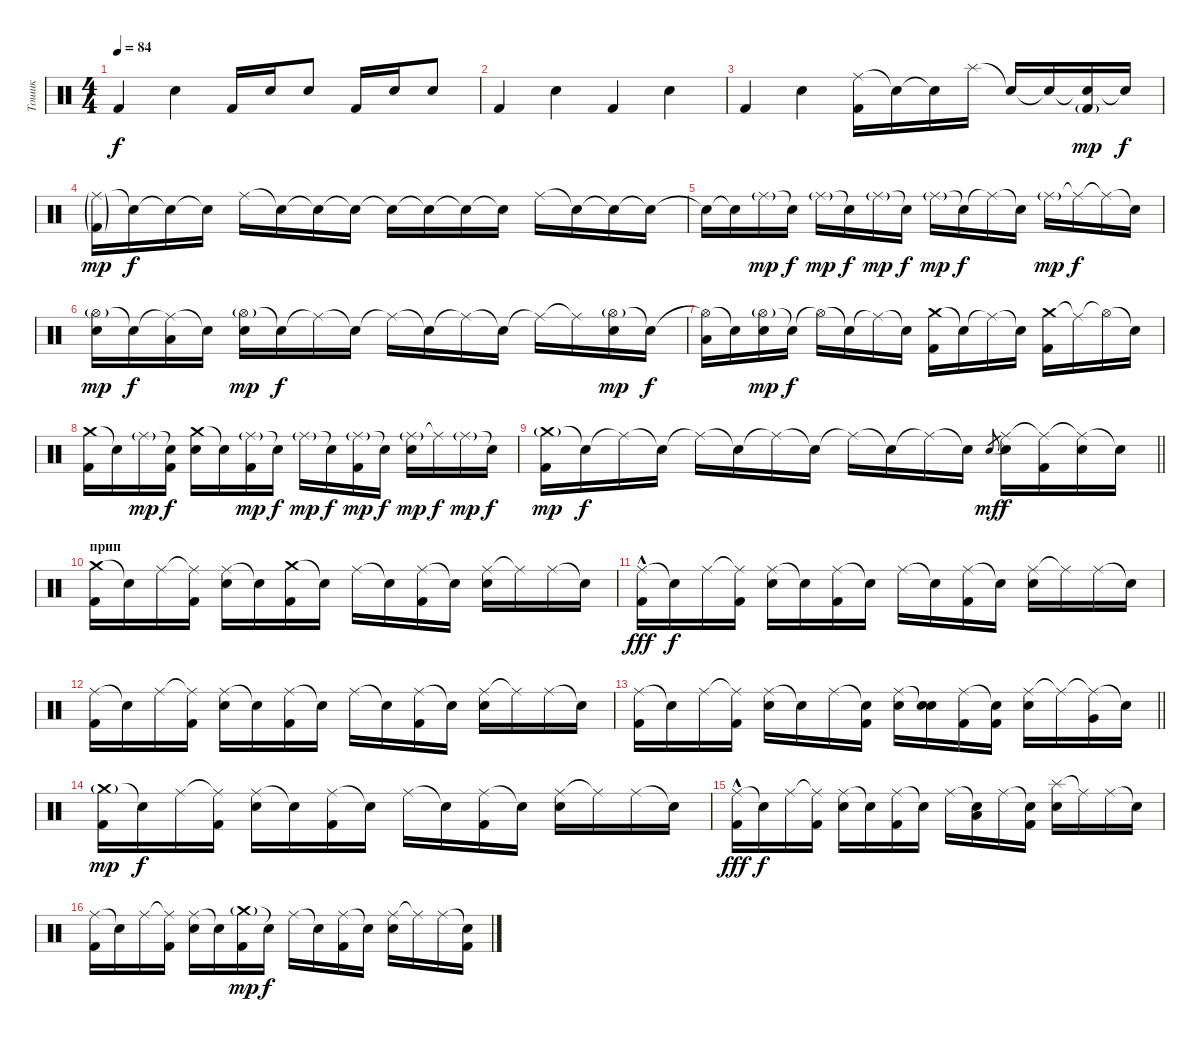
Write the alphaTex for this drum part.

\track ("Тошик" "Тошик") {instrument percussion}
\staff {score}
\articulation defaults
\ts (4 4)
\tempo 84
\clef neutral
\ks c "Kick (hit) 2".4{dy f} "Snare (hit) 2".4 "Kick (hit) 2".16 "Snare (hit) 2".16 "Snare (hit) 2".8 "Kick (hit) 2".16 "Snare (hit) 2".16 "Snare (hit) 2".8
|
"Kick (hit) 2".4 "Snare (hit) 2".4 "Kick (hit) 2".4 "Snare (hit) 2".4 |
"Kick (hit) 2".4 "Snare (hit) 2".4 ("Ride (middle)" "Kick (hit) 2").16 "Snare (hit)"{t}.16 "Snare (hit)"{t}.16 "Splash (hit)".16 "Snare (hit)"{t}.16 "Snare (hit)"{t}.16 ("Snare (hit)"{t} "Kick (hit) 2"{g}).16{dy mp} "Snare (hit)"{t}.16{dy f} |
("Ride (middle)"{g} "Kick (hit) 2"{g}).16{dy mp} "Snare (hit)"{t}.16{dy f} "Snare (hit)"{t}.16 "Snare (hit)"{t}.16 "Ride (middle)".16 "Snare (hit)"{t}.16 "Snare (hit)"{t}.16 "Snare (hit)"{t}.16 "Snare (hit)"{t}.16 "Snare (hit)"{t}.16 "Snare (hit)"{t}.16 "Snare (hit)"{t}.16 "Ride (middle)".16 "Snare (hit)"{t}.16 "Snare (hit)"{t}.16 "Snare (hit)"{t}.16 |
"Snare (hit)"{t}.16 "Snare (hit)"{t}.16 "Ride (middle)"{g}.16{dy mp} "Snare (hit)"{t}.16{dy f} "Ride (middle)"{g}.16{dy mp} "Snare (hit)"{t}.16{dy f} "Ride (middle)"{g}.16{dy mp} "Snare (hit)"{t}.16{dy f} "Ride (middle)"{g}.16{dy mp} "Snare (hit)"{t}.16{dy f} "Ride (middle)"{t}.16 "Snare (hit)"{t}.16 "Ride (middle)"{g}.16{dy mp} "Ride (middle)"{t}.16{dy f} "Ride (middle)"{t}.16 "Snare (hit)"{t}.16 |
("Hi-Hat (open)"{g} "Snare (hit) 2").16{dy mp} "Snare (hit)"{t}.16{dy f} ("Ride (middle)"{t} "Low Tom (hit)").16 "Snare (hit)"{t}.16 ("Hi-Hat (open)"{g} "Snare (hit) 2").16{dy mp} "Snare (hit)"{t}.16{dy f} "Ride (middle)"{t}.16 "Snare (hit)"{t}.16 "Ride (middle)"{t}.16 "Snare (hit)"{t}.16 "Ride (middle)"{t}.16 "Snare (hit)"{t}.16 "Ride (middle)"{t}.16 "Ride (middle)"{t}.16 ("Hi-Hat (open)"{g} "Snare (hit) 2").16{dy mp} "Snare (hit)"{t}.16{dy f} |
("Hi-Hat (open)"{t} "Low Tom (hit)").16 "Snare (hit)"{t}.16 ("Hi-Hat (open)"{g} "Snare (hit) 2").16{dy mp} "Snare (hit)"{t}.16{dy f} "Hi-Hat (open)"{t}.16 "Snare (hit)"{t}.16 "Ride (middle)"{t}.16 "Snare (hit)"{t}.16 ("Crash medium (hit)" "Kick (hit) 2").16 "Snare (hit)"{t}.16 "Ride (middle)"{t}.16 "Snare (hit)"{t}.16 ("Crash medium (hit)" "Kick (hit) 2").16 "Ride (middle)"{t}.16 "Hi-Hat (open)"{t}.16 "Snare (hit)"{t}.16 |
("Crash medium (hit)" "Kick (hit) 2").16 "Snare (hit)"{t}.16 "Ride (middle)"{g}.16{dy mp} ("Snare (hit)"{t} "Kick (hit) 2").16{dy f} ("Crash medium (hit)" "Snare (hit) 2").16 "Snare (hit)"{t}.16 ("Ride (middle)"{g} "Kick (hit) 2").16{dy mp} "Snare (hit)"{t}.16{dy f} "Ride (middle)"{g}.16{dy mp} "Snare (hit)"{t}.16{dy f} ("Ride (middle)"{g} "Kick (hit) 2").16{dy mp} "Snare (hit)"{t}.16{dy f} ("Ride (middle)"{g} "Snare (hit) 2").16{dy mp} "Ride (middle)"{t}.16{dy f} "Ride (middle)"{g}.16{dy mp} "Snare (hit)"{t}.16{dy f} |
\barLineRight lightlight
("Crash medium (hit)"{g} "Kick (hit) 2").16{dy mp} "Snare (hit)"{t}.16{dy f} "Ride (middle)"{t}.16 "Snare (hit)"{t}.16 "Ride (middle)"{t}.16 "Snare (hit)"{t}.16 "Ride (middle)"{t}.16 "Snare (hit)"{t}.16 "Ride (middle)"{t}.16 "Snare (hit)"{t}.16 "Ride (middle)"{t}.16 "Snare (hit)"{t}.16 "Snare (hit) 2".8{gr dy mf} ("Ride (middle)"{t} "Snare (hit) 2").16{dy f} ("Ride (middle)"{t} "Kick (hit) 2").16 ("Ride (middle)"{t} "Snare (hit) 2").16 "Snare (hit)"{t}.16 |
\section ("" "прип")
("Crash medium (hit)" "Kick (hit) 2").16 "Snare (hit)"{t}.16 "Ride (middle)".16 ("Ride (middle)"{t} "Kick (hit) 2").16 ("Ride (middle)" "Snare (hit) 2").16 "Snare (hit)"{t}.16 ("Crash medium (hit)" "Kick (hit) 2").16 "Snare (hit)"{t}.16 "Ride (middle)".16 "Snare (hit)"{t}.16 ("Ride (middle)" "Kick (hit) 2").16 "Snare (hit)"{t}.16 ("Ride (middle)" "Snare (hit) 2").16 "Ride (middle)"{t}.16 "Ride (middle)".16 "Snare (hit)"{t}.16 |
("Ride (middle)"{hac} "Kick (hit) 2").16{dy fff} "Snare (hit)"{t}.16{dy f} "Ride (middle)".16 ("Ride (middle)"{t} "Kick (hit) 2").16 ("Ride (middle)" "Snare (hit) 2").16 "Snare (hit)"{t}.16 ("Ride (middle)" "Kick (hit) 2").16 "Snare (hit)"{t}.16 "Ride (middle)".16 "Snare (hit)"{t}.16 ("Ride (middle)" "Kick (hit) 2").16 "Snare (hit)"{t}.16 ("Ride (middle)" "Snare (hit) 2").16 "Ride (middle)"{t}.16 "Ride (middle)".16 "Snare (hit)"{t}.16 |
("Ride (middle)" "Kick (hit) 2").16 "Snare (hit)"{t}.16 "Ride (middle)".16 ("Ride (middle)"{t} "Kick (hit) 2").16 ("Ride (middle)" "Snare (hit) 2").16 "Snare (hit)"{t}.16 ("Ride (middle)" "Kick (hit) 2").16 "Snare (hit)"{t}.16 "Ride (middle)".16 "Snare (hit)"{t}.16 ("Ride (middle)" "Kick (hit) 2").16 "Snare (hit)"{t}.16 ("Ride (middle)" "Snare (hit) 2").16 "Ride (middle)"{t}.16 "Ride (middle)".16 "Snare (hit)"{t}.16 |
\barLineRight lightlight
("Ride (middle)" "Kick (hit) 2").16 "Snare (hit)"{t}.16 "Ride (middle)".16 ("Ride (middle)"{t} "Kick (hit) 2").16 ("Ride (middle)" "Snare (hit) 2").16 "Snare (hit)"{t}.16 "Ride (middle)".16 ("Snare (hit)"{t} "Kick (hit) 2").16 ("Ride (middle)" "Snare (hit) 2").16 ("Snare (hit)"{t} "Snare (hit) 2").16 ("Ride (middle)" "Kick (hit) 2").16 ("Snare (hit)"{t} "Kick (hit) 2").16 ("Ride (middle)" "Snare (hit) 2").16 "Ride (middle)"{t}.16 ("Ride (middle)"{t} "Very Low Tom (hit)").16 "Snare (hit)"{t}.16 |
("Crash medium (hit)"{g} "Kick (hit) 2").16{dy mp} "Snare (hit)"{t}.16{dy f} "Ride (middle)".16 ("Ride (middle)"{t} "Kick (hit) 2").16 ("Ride (middle)" "Snare (hit) 2").16 "Snare (hit)"{t}.16 ("Ride (middle)" "Kick (hit) 2").16 "Snare (hit)"{t}.16 "Ride (middle)".16 "Snare (hit)"{t}.16 ("Ride (middle)" "Kick (hit) 2").16 "Snare (hit)"{t}.16 ("Ride (middle)" "Snare (hit) 2").16 "Ride (middle)"{t}.16 "Ride (middle)".16 "Snare (hit)"{t}.16 |
("Ride (middle)"{hac} "Kick (hit) 2").16{dy fff} "Snare (hit)"{t}.16{dy f} "Ride (middle)".16 ("Ride (middle)"{t} "Kick (hit) 2").16 ("Ride (middle)" "Snare (hit) 2").16 "Snare (hit)"{t}.16 ("Ride (middle)" "Kick (hit) 2").16 "Snare (hit)"{t}.16 "Ride (middle)".16 ("Snare (hit)"{t} "Low Tom (hit)").16 "Ride (middle)".16 ("Snare (hit)"{t} "Kick (hit) 2").16 ("Splash (hit)" "Snare (hit) 2").16 "Ride (middle)"{t}.16 "Ride (middle)".16 "Snare (hit)"{t}.16 |
("Ride (middle)" "Kick (hit) 2").16 "Snare (hit)"{t}.16 "Ride (middle)".16 ("Ride (middle)"{t} "Kick (hit) 2").16 ("Ride (middle)" "Snare (hit) 2").16 "Snare (hit)"{t}.16 ("Crash medium (hit)"{g} "Kick (hit) 2").16{dy mp} "Snare (hit)"{t}.16{dy f} "Ride (middle)".16 "Snare (hit)"{t}.16 ("Ride (middle)" "Kick (hit) 2").16 "Snare (hit)"{t}.16 ("Ride (middle)" "Snare (hit) 2").16 "Ride (middle)"{t}.16 "Ride (middle)".16 ("Snare (hit)"{t} "Kick (hit) 2").16
